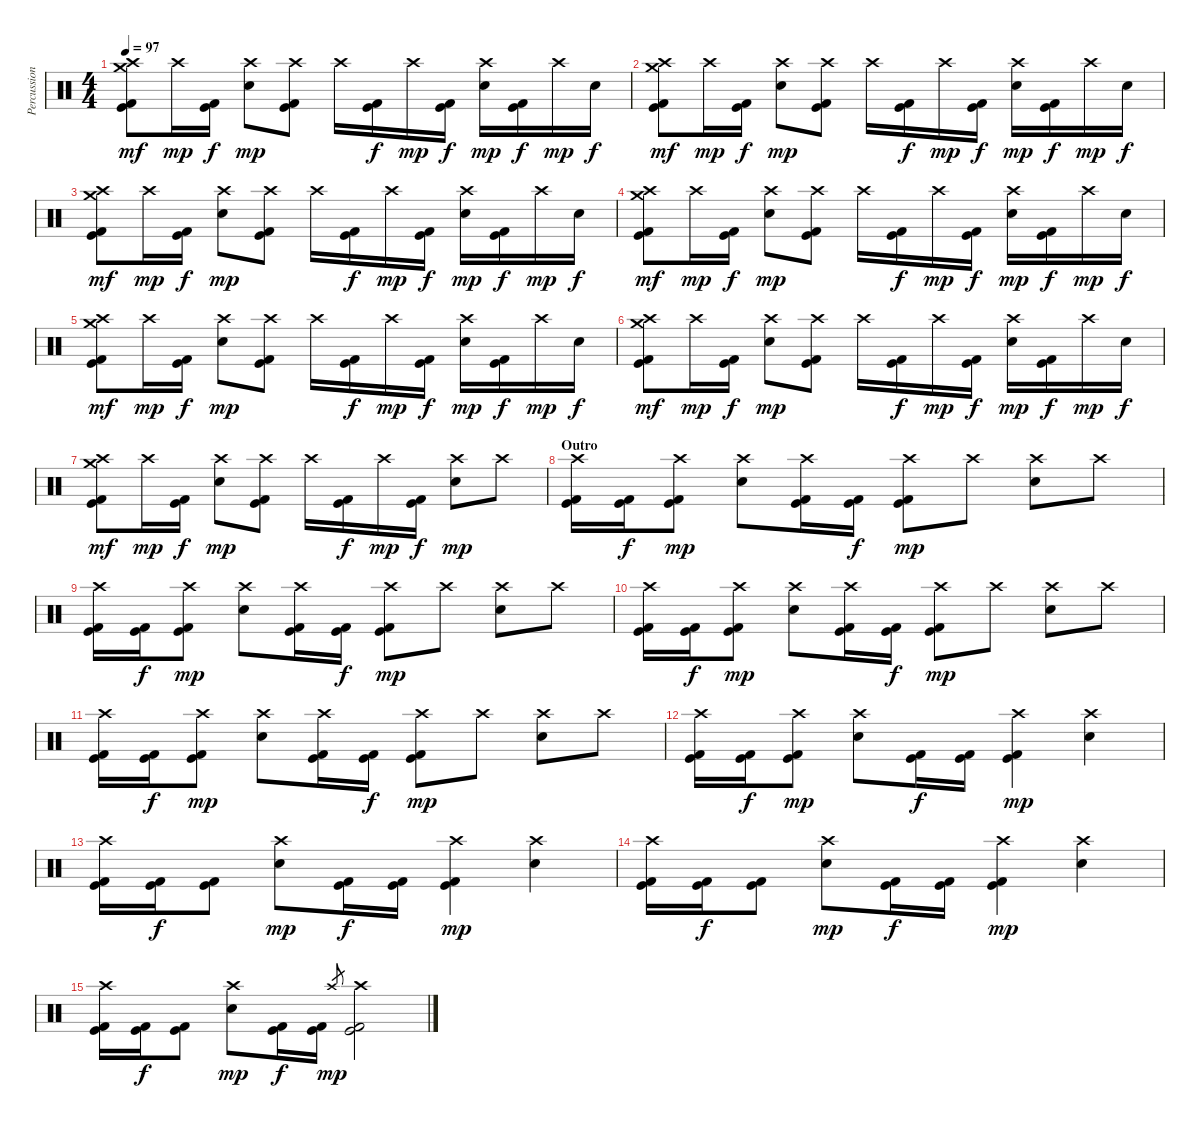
\track ("Percussion - Skinny" "Percussion") {instrument percussion}
\staff {score}
\articulation defaults
\ts (4 4)
\tempo 97
\clef neutral
\ks c
("Crash high (hit)" "Crash medium (hit)" "Kick (hit) 2" "Kick (hit)").8{dy mf} "Crash high (hit)".16{dy mp} ("Kick (hit) 2" "Kick (hit)").16{dy f} ("Crash high (hit)" "Electric Snare (hit)").8{dy mp} ("Crash high (hit)" "Kick (hit) 2" "Kick (hit)").8 "Crash high (hit)".16 ("Kick (hit) 2" "Kick (hit)").16{dy f} "Crash high (hit)".16{dy mp} ("Kick (hit) 2" "Kick (hit)").16{dy f} ("Crash high (hit)" "Electric Snare (hit)").16{dy mp} ("Kick (hit) 2" "Kick (hit)").16{dy f} "Crash high (hit)".16{dy mp} "Electric Snare (hit)".16{dy f} |
("Crash high (hit)" "Crash medium (hit)" "Kick (hit) 2" "Kick (hit)").8{dy mf} "Crash high (hit)".16{dy mp} ("Kick (hit) 2" "Kick (hit)").16{dy f} ("Crash high (hit)" "Electric Snare (hit)").8{dy mp} ("Crash high (hit)" "Kick (hit) 2" "Kick (hit)").8 "Crash high (hit)".16 ("Kick (hit) 2" "Kick (hit)").16{dy f} "Crash high (hit)".16{dy mp} ("Kick (hit) 2" "Kick (hit)").16{dy f} ("Crash high (hit)" "Electric Snare (hit)").16{dy mp} ("Kick (hit) 2" "Kick (hit)").16{dy f} "Crash high (hit)".16{dy mp} "Electric Snare (hit)".16{dy f} |
("Crash high (hit)" "Crash medium (hit)" "Kick (hit) 2" "Kick (hit)").8{dy mf} "Crash high (hit)".16{dy mp} ("Kick (hit) 2" "Kick (hit)").16{dy f} ("Crash high (hit)" "Electric Snare (hit)").8{dy mp} ("Crash high (hit)" "Kick (hit) 2" "Kick (hit)").8 "Crash high (hit)".16 ("Kick (hit) 2" "Kick (hit)").16{dy f} "Crash high (hit)".16{dy mp} ("Kick (hit) 2" "Kick (hit)").16{dy f} ("Crash high (hit)" "Electric Snare (hit)").16{dy mp} ("Kick (hit) 2" "Kick (hit)").16{dy f} "Crash high (hit)".16{dy mp} "Electric Snare (hit)".16{dy f} |
("Crash high (hit)" "Crash medium (hit)" "Kick (hit) 2" "Kick (hit)").8{dy mf} "Crash high (hit)".16{dy mp} ("Kick (hit) 2" "Kick (hit)").16{dy f} ("Crash high (hit)" "Electric Snare (hit)").8{dy mp} ("Crash high (hit)" "Kick (hit) 2" "Kick (hit)").8 "Crash high (hit)".16 ("Kick (hit) 2" "Kick (hit)").16{dy f} "Crash high (hit)".16{dy mp} ("Kick (hit) 2" "Kick (hit)").16{dy f} ("Crash high (hit)" "Electric Snare (hit)").16{dy mp} ("Kick (hit) 2" "Kick (hit)").16{dy f} "Crash high (hit)".16{dy mp} "Electric Snare (hit)".16{dy f} |
("Crash high (hit)" "Crash medium (hit)" "Kick (hit) 2" "Kick (hit)").8{dy mf} "Crash high (hit)".16{dy mp} ("Kick (hit) 2" "Kick (hit)").16{dy f} ("Crash high (hit)" "Electric Snare (hit)").8{dy mp} ("Crash high (hit)" "Kick (hit) 2" "Kick (hit)").8 "Crash high (hit)".16 ("Kick (hit) 2" "Kick (hit)").16{dy f} "Crash high (hit)".16{dy mp} ("Kick (hit) 2" "Kick (hit)").16{dy f} ("Crash high (hit)" "Electric Snare (hit)").16{dy mp} ("Kick (hit) 2" "Kick (hit)").16{dy f} "Crash high (hit)".16{dy mp} "Electric Snare (hit)".16{dy f} |
("Crash high (hit)" "Crash medium (hit)" "Kick (hit) 2" "Kick (hit)").8{dy mf} "Crash high (hit)".16{dy mp} ("Kick (hit) 2" "Kick (hit)").16{dy f} ("Crash high (hit)" "Electric Snare (hit)").8{dy mp} ("Crash high (hit)" "Kick (hit) 2" "Kick (hit)").8 "Crash high (hit)".16 ("Kick (hit) 2" "Kick (hit)").16{dy f} "Crash high (hit)".16{dy mp} ("Kick (hit) 2" "Kick (hit)").16{dy f} ("Crash high (hit)" "Electric Snare (hit)").16{dy mp} ("Kick (hit) 2" "Kick (hit)").16{dy f} "Crash high (hit)".16{dy mp} "Electric Snare (hit)".16{dy f} |
("Crash high (hit)" "Crash medium (hit)" "Kick (hit) 2" "Kick (hit)").8{dy mf} "Crash high (hit)".16{dy mp} ("Kick (hit) 2" "Kick (hit)").16{dy f} ("Crash high (hit)" "Electric Snare (hit)").8{dy mp} ("Crash high (hit)" "Kick (hit) 2" "Kick (hit)").8 "Crash high (hit)".16 ("Kick (hit) 2" "Kick (hit)").16{dy f} "Crash high (hit)".16{dy mp} ("Kick (hit) 2" "Kick (hit)").16{dy f} ("Crash high (hit)" "Electric Snare (hit)").8{dy mp} "Crash high (hit)".8 |
\section ("" "Outro")
("Crash high (hit)" "Kick (hit) 2" "Kick (hit)").16 ("Kick (hit) 2" "Kick (hit)").16{dy f} ("Crash high (hit)" "Kick (hit) 2" "Kick (hit)").8{dy mp} ("Crash high (hit)" "Electric Snare (hit)").8 ("Crash high (hit)" "Kick (hit) 2" "Kick (hit)").16 ("Kick (hit) 2" "Kick (hit)").16{dy f} ("Crash high (hit)" "Kick (hit) 2" "Kick (hit)").8{dy mp} "Crash high (hit)".8 ("Crash high (hit)" "Electric Snare (hit)").8 "Crash high (hit)".8 |
("Crash high (hit)" "Kick (hit) 2" "Kick (hit)").16 ("Kick (hit) 2" "Kick (hit)").16{dy f} ("Crash high (hit)" "Kick (hit) 2" "Kick (hit)").8{dy mp} ("Crash high (hit)" "Electric Snare (hit)").8 ("Crash high (hit)" "Kick (hit) 2" "Kick (hit)").16 ("Kick (hit) 2" "Kick (hit)").16{dy f} ("Crash high (hit)" "Kick (hit) 2" "Kick (hit)").8{dy mp} "Crash high (hit)".8 ("Crash high (hit)" "Electric Snare (hit)").8 "Crash high (hit)".8 |
("Crash high (hit)" "Kick (hit) 2" "Kick (hit)").16 ("Kick (hit) 2" "Kick (hit)").16{dy f} ("Crash high (hit)" "Kick (hit) 2" "Kick (hit)").8{dy mp} ("Crash high (hit)" "Electric Snare (hit)").8 ("Crash high (hit)" "Kick (hit) 2" "Kick (hit)").16 ("Kick (hit) 2" "Kick (hit)").16{dy f} ("Crash high (hit)" "Kick (hit) 2" "Kick (hit)").8{dy mp} "Crash high (hit)".8 ("Crash high (hit)" "Electric Snare (hit)").8 "Crash high (hit)".8 |
("Crash high (hit)" "Kick (hit) 2" "Kick (hit)").16 ("Kick (hit) 2" "Kick (hit)").16{dy f} ("Crash high (hit)" "Kick (hit) 2" "Kick (hit)").8{dy mp} ("Crash high (hit)" "Electric Snare (hit)").8 ("Crash high (hit)" "Kick (hit) 2" "Kick (hit)").16 ("Kick (hit) 2" "Kick (hit)").16{dy f} ("Crash high (hit)" "Kick (hit) 2" "Kick (hit)").8{dy mp} "Crash high (hit)".8 ("Crash high (hit)" "Electric Snare (hit)").8 "Crash high (hit)".8 |
("Crash high (hit)" "Kick (hit) 2" "Kick (hit)").16 ("Kick (hit) 2" "Kick (hit)").16{dy f} ("Crash high (hit)" "Kick (hit) 2" "Kick (hit)").8{dy mp} ("Crash high (hit)" "Electric Snare (hit)").8 ("Kick (hit) 2" "Kick (hit)").16{dy f} ("Kick (hit) 2" "Kick (hit)").16 ("Crash high (hit)" "Kick (hit) 2" "Kick (hit)").4{dy mp} ("Crash high (hit)" "Electric Snare (hit)").4 |
("Crash high (hit)" "Kick (hit) 2" "Kick (hit)").16 ("Kick (hit) 2" "Kick (hit)").16{dy f} ("Kick (hit) 2" "Kick (hit)").8 ("Crash high (hit)" "Electric Snare (hit)").8{dy mp} ("Kick (hit) 2" "Kick (hit)").16{dy f} ("Kick (hit) 2" "Kick (hit)").16 ("Crash high (hit)" "Kick (hit) 2" "Kick (hit)").4{dy mp} ("Crash high (hit)" "Electric Snare (hit)").4 |
("Crash high (hit)" "Kick (hit) 2" "Kick (hit)").16 ("Kick (hit) 2" "Kick (hit)").16{dy f} ("Kick (hit) 2" "Kick (hit)").8 ("Crash high (hit)" "Electric Snare (hit)").8{dy mp} ("Kick (hit) 2" "Kick (hit)").16{dy f} ("Kick (hit) 2" "Kick (hit)").16 ("Crash high (hit)" "Kick (hit) 2" "Kick (hit)").4{dy mp} ("Crash high (hit)" "Electric Snare (hit)").4 |
("Crash high (hit)" "Kick (hit) 2" "Kick (hit)").16 ("Kick (hit) 2" "Kick (hit)").16{dy f} ("Kick (hit) 2" "Kick (hit)").8 ("Crash high (hit)" "Electric Snare (hit)").8{dy mp} ("Kick (hit) 2" "Kick (hit)").16{dy f} ("Kick (hit) 2" "Kick (hit)").16 "Crash high (hit)".8{gr dy mp} ("Crash high (hit)" "Kick (hit) 2" "Kick (hit)").2
